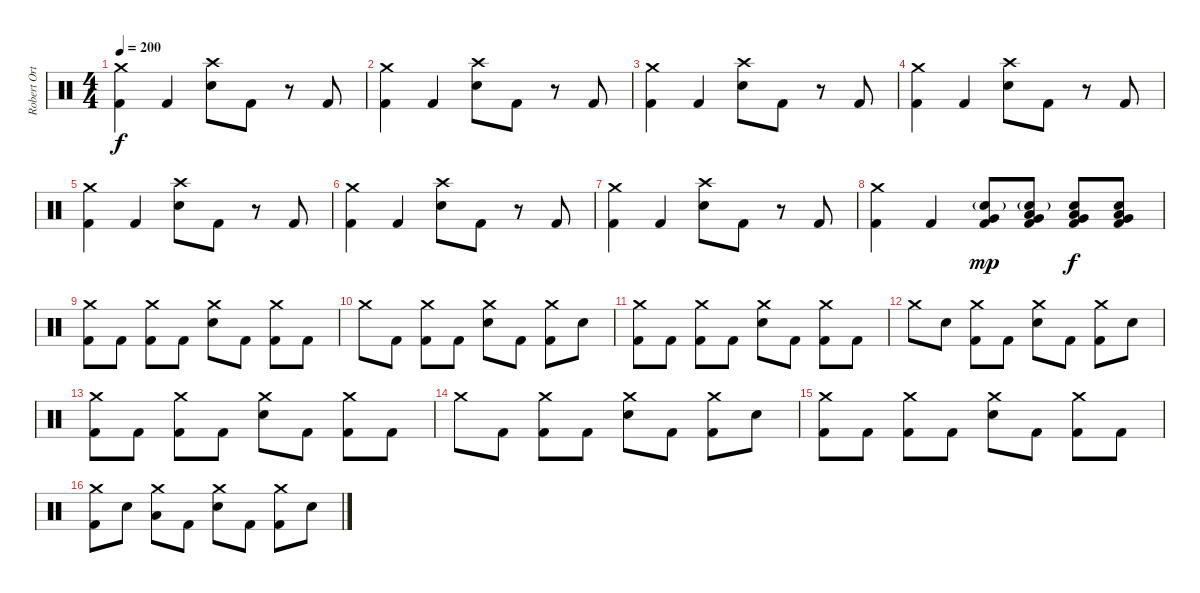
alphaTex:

\track ("Robert Ortiz - Drums" "Robert Ort") {instrument percussion}
\staff {score}
\articulation defaults
\ts (4 4)
\tempo 200
\clef neutral
\ks c
("Crash medium (hit)" "Kick (hit) 2").4{dy f} "Kick (hit) 2".4 ("Crash high (hit)" "Electric Snare (hit)").8 "Kick (hit) 2".8 r.8 "Kick (hit) 2".8 |
("Crash medium (hit)" "Kick (hit) 2").4 "Kick (hit) 2".4 ("Crash high (hit)" "Electric Snare (hit)").8 "Kick (hit) 2".8 r.8 "Kick (hit) 2".8 |
("Crash medium (hit)" "Kick (hit) 2").4 "Kick (hit) 2".4 ("Crash high (hit)" "Electric Snare (hit)").8 "Kick (hit) 2".8 r.8 "Kick (hit) 2".8 |
("Crash medium (hit)" "Kick (hit) 2").4 "Kick (hit) 2".4 ("Crash high (hit)" "Electric Snare (hit)").8 "Kick (hit) 2".8 r.8 "Kick (hit) 2".8 |
("Crash medium (hit)" "Kick (hit) 2").4 "Kick (hit) 2".4 ("Crash high (hit)" "Electric Snare (hit)").8 "Kick (hit) 2".8 r.8 "Kick (hit) 2".8 |
("Crash medium (hit)" "Kick (hit) 2").4 "Kick (hit) 2".4 ("Crash high (hit)" "Electric Snare (hit)").8 "Kick (hit) 2".8 r.8 "Kick (hit) 2".8 |
("Crash medium (hit)" "Kick (hit) 2").4 "Kick (hit) 2".4 ("Crash high (hit)" "Electric Snare (hit)").8 "Kick (hit) 2".8 r.8 "Kick (hit) 2".8 |
("Crash medium (hit)" "Kick (hit) 2").4 "Kick (hit) 2".4 ("Very Low Tom (hit)" "Electric Snare (hit)"{g} "Kick (hit) 2").8{dy mp} ("Very Low Tom (hit)" "Low Tom (hit)" "Electric Snare (hit)"{g} "Kick (hit) 2").8 ("Very Low Tom (hit)" "Low Tom (hit)" "Electric Snare (hit)" "Kick (hit) 2").8{dy f} ("Very Low Tom (hit)" "Low Tom (hit)" "Electric Snare (hit)" "Kick (hit) 2").8 |
("Crash medium (hit)" "Kick (hit) 2").8 "Kick (hit) 2".8 ("Crash medium (hit)" "Kick (hit) 2").8 "Kick (hit) 2".8 ("Crash medium (hit)" "Electric Snare (hit)").8 "Kick (hit) 2".8 ("Crash medium (hit)" "Kick (hit) 2").8 "Kick (hit) 2".8 |
"Crash medium (hit)".8 "Kick (hit) 2".8 ("Crash medium (hit)" "Kick (hit) 2").8 "Kick (hit) 2".8 ("Crash medium (hit)" "Electric Snare (hit)").8 "Kick (hit) 2".8 ("Crash medium (hit)" "Kick (hit) 2").8 "Electric Snare (hit)".8 |
("Crash medium (hit)" "Kick (hit) 2").8 "Kick (hit) 2".8 ("Crash medium (hit)" "Kick (hit) 2").8 "Kick (hit) 2".8 ("Crash medium (hit)" "Electric Snare (hit)").8 "Kick (hit) 2".8 ("Crash medium (hit)" "Kick (hit) 2").8 "Kick (hit) 2".8 |
"Crash medium (hit)".8 "Electric Snare (hit)".8 ("Crash medium (hit)" "Kick (hit) 2").8 "Kick (hit) 2".8 ("Crash medium (hit)" "Electric Snare (hit)").8 "Kick (hit) 2".8 ("Crash medium (hit)" "Kick (hit) 2").8 "Electric Snare (hit)".8 |
("Crash medium (hit)" "Kick (hit) 2").8 "Kick (hit) 2".8 ("Crash medium (hit)" "Kick (hit) 2").8 "Kick (hit) 2".8 ("Crash medium (hit)" "Electric Snare (hit)").8 "Kick (hit) 2".8 ("Crash medium (hit)" "Kick (hit) 2").8 "Kick (hit) 2".8 |
"Crash medium (hit)".8 "Kick (hit) 2".8 ("Crash medium (hit)" "Kick (hit) 2").8 "Kick (hit) 2".8 ("Crash medium (hit)" "Electric Snare (hit)").8 "Kick (hit) 2".8 ("Crash medium (hit)" "Kick (hit) 2").8 "Electric Snare (hit)".8 |
("Crash medium (hit)" "Kick (hit) 2").8 "Kick (hit) 2".8 ("Crash medium (hit)" "Kick (hit) 2").8 "Kick (hit) 2".8 ("Crash medium (hit)" "Electric Snare (hit)").8 "Kick (hit) 2".8 ("Crash medium (hit)" "Kick (hit) 2").8 "Kick (hit) 2".8 |
("Crash medium (hit)" "Kick (hit) 2").8 "Electric Snare (hit)".8 ("Crash medium (hit)" "Low Tom (hit)").8 "Kick (hit) 2".8 ("Crash medium (hit)" "Electric Snare (hit)").8 "Kick (hit) 2".8 ("Crash medium (hit)" "Kick (hit) 2").8 "Electric Snare (hit)".8
